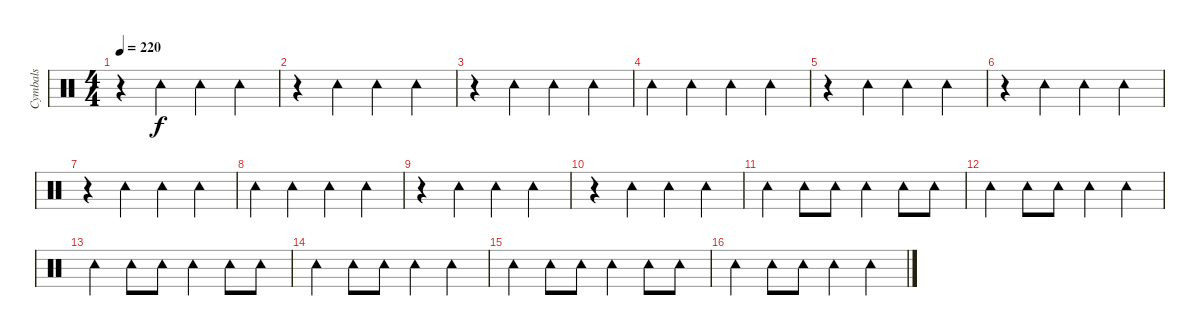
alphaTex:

\track ("Cymbals" "Cymbals") {instrument percussion}
\staff {score}
\articulation defaults
\ts (4 4)
\tempo 220
\clef neutral
\ks c
r.4{dy f} "Tambourine (hit)".4 "Tambourine (hit)".4 "Tambourine (hit)".4 |
r.4 "Tambourine (hit)".4 "Tambourine (hit)".4 "Tambourine (hit)".4 |
r.4 "Tambourine (hit)".4 "Tambourine (hit)".4 "Tambourine (hit)".4 |
"Tambourine (hit)".4 "Tambourine (hit)".4 "Tambourine (hit)".4 "Tambourine (hit)".4 |
r.4 "Tambourine (hit)".4 "Tambourine (hit)".4 "Tambourine (hit)".4 |
r.4 "Tambourine (hit)".4 "Tambourine (hit)".4 "Tambourine (hit)".4 |
r.4 "Tambourine (hit)".4 "Tambourine (hit)".4 "Tambourine (hit)".4 |
"Tambourine (hit)".4 "Tambourine (hit)".4 "Tambourine (hit)".4 "Tambourine (hit)".4 |
r.4 "Tambourine (hit)".4 "Tambourine (hit)".4 "Tambourine (hit)".4 |
r.4 "Tambourine (hit)".4 "Tambourine (hit)".4 "Tambourine (hit)".4 |
"Tambourine (hit)".4 "Tambourine (hit)".8 "Tambourine (hit)".8 "Tambourine (hit)".4 "Tambourine (hit)".8 "Tambourine (hit)".8 |
"Tambourine (hit)".4 "Tambourine (hit)".8 "Tambourine (hit)".8 "Tambourine (hit)".4 "Tambourine (hit)".4 |
"Tambourine (hit)".4 "Tambourine (hit)".8 "Tambourine (hit)".8 "Tambourine (hit)".4 "Tambourine (hit)".8 "Tambourine (hit)".8 |
"Tambourine (hit)".4 "Tambourine (hit)".8 "Tambourine (hit)".8 "Tambourine (hit)".4 "Tambourine (hit)".4 |
"Tambourine (hit)".4 "Tambourine (hit)".8 "Tambourine (hit)".8 "Tambourine (hit)".4 "Tambourine (hit)".8 "Tambourine (hit)".8 |
"Tambourine (hit)".4 "Tambourine (hit)".8 "Tambourine (hit)".8 "Tambourine (hit)".4 "Tambourine (hit)".4
